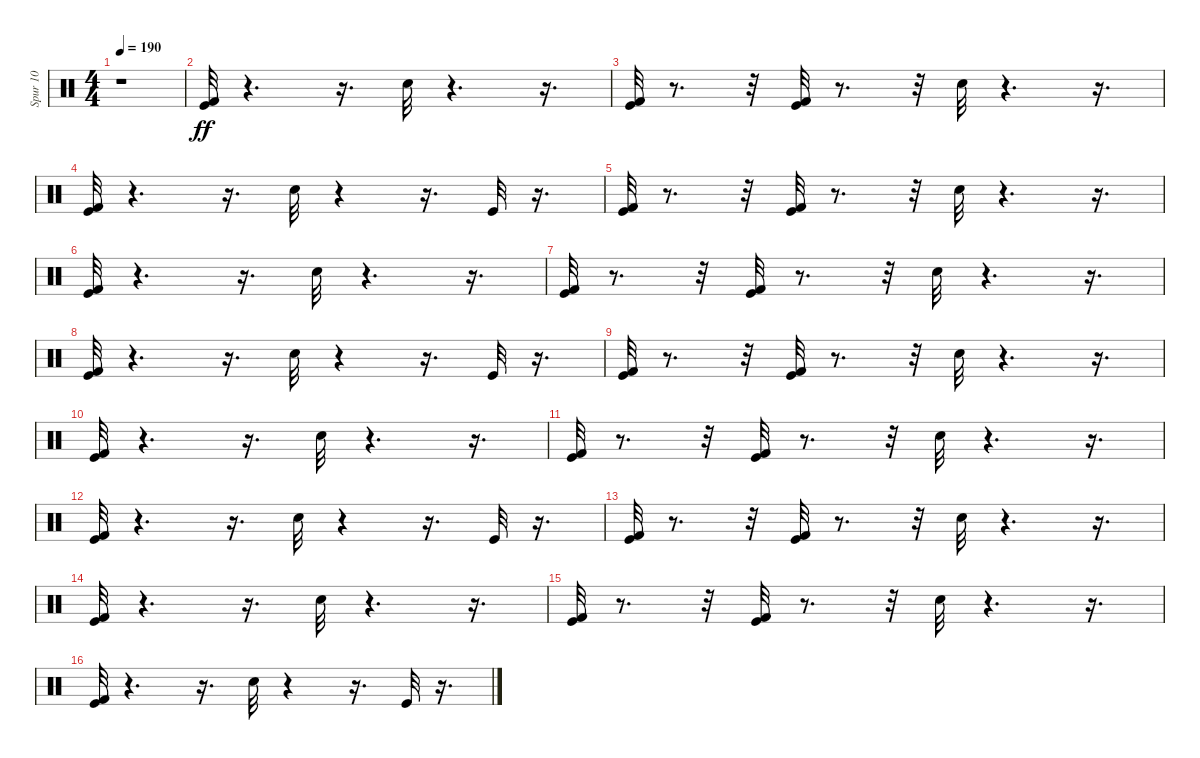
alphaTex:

\track ("Spur 10" "Spur 10") {instrument percussion}
\staff {score}
\articulation defaults
\ts (4 4)
\tempo 190
\clef neutral
\ks c
r.1{dy ff} |
("Kick (hit) 2" "Kick (hit)").32 r.4{d} r.16{d} "Hand Clap (hit)".32 r.4{d} r.16{d} |
("Kick (hit) 2" "Kick (hit)").32 r.8{d} r.32 ("Kick (hit) 2" "Kick (hit)").32 r.8{d} r.32 "Hand Clap (hit)".32 r.4{d} r.16{d} |
("Kick (hit) 2" "Kick (hit)").32 r.4{d} r.16{d} "Hand Clap (hit)".32 r.4 r.16{d} "Kick (hit)".32 r.16{d} |
("Kick (hit) 2" "Kick (hit)").32 r.8{d} r.32 ("Kick (hit) 2" "Kick (hit)").32 r.8{d} r.32 "Hand Clap (hit)".32 r.4{d} r.16{d} |
("Kick (hit) 2" "Kick (hit)").32 r.4{d} r.16{d} "Hand Clap (hit)".32 r.4{d} r.16{d} |
("Kick (hit) 2" "Kick (hit)").32 r.8{d} r.32 ("Kick (hit) 2" "Kick (hit)").32 r.8{d} r.32 "Hand Clap (hit)".32 r.4{d} r.16{d} |
("Kick (hit) 2" "Kick (hit)").32 r.4{d} r.16{d} "Hand Clap (hit)".32 r.4 r.16{d} "Kick (hit)".32 r.16{d} |
("Kick (hit) 2" "Kick (hit)").32 r.8{d} r.32 ("Kick (hit) 2" "Kick (hit)").32 r.8{d} r.32 "Hand Clap (hit)".32 r.4{d} r.16{d} |
("Kick (hit) 2" "Kick (hit)").32 r.4{d} r.16{d} "Hand Clap (hit)".32 r.4{d} r.16{d} |
("Kick (hit) 2" "Kick (hit)").32 r.8{d} r.32 ("Kick (hit) 2" "Kick (hit)").32 r.8{d} r.32 "Hand Clap (hit)".32 r.4{d} r.16{d} |
("Kick (hit) 2" "Kick (hit)").32 r.4{d} r.16{d} "Hand Clap (hit)".32 r.4 r.16{d} "Kick (hit)".32 r.16{d} |
("Kick (hit) 2" "Kick (hit)").32 r.8{d} r.32 ("Kick (hit) 2" "Kick (hit)").32 r.8{d} r.32 "Hand Clap (hit)".32 r.4{d} r.16{d} |
("Kick (hit) 2" "Kick (hit)").32 r.4{d} r.16{d} "Hand Clap (hit)".32 r.4{d} r.16{d} |
("Kick (hit) 2" "Kick (hit)").32 r.8{d} r.32 ("Kick (hit) 2" "Kick (hit)").32 r.8{d} r.32 "Hand Clap (hit)".32 r.4{d} r.16{d} |
("Kick (hit) 2" "Kick (hit)").32 r.4{d} r.16{d} "Hand Clap (hit)".32 r.4 r.16{d} "Kick (hit)".32 r.16{d}
